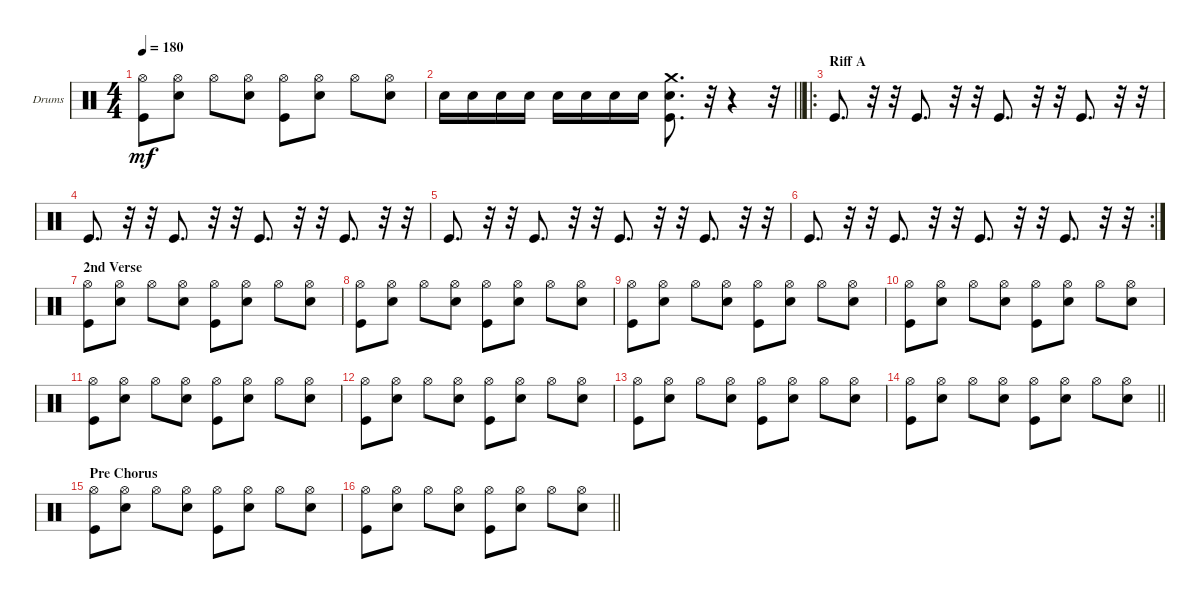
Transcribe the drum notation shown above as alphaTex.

\bracketExtendMode groupsimilarinstruments
\firstSystemTrackNameOrientation horizontal
\otherSystemsTrackNameOrientation horizontal
\track ("Drumkit" "Drums") {instrument percussion}
\staff {score}
\articulation defaults
\ts (4 4)
\tempo 180
\clef neutral
\ks c
("Kick (hit)" "Hi-Hat (open)").8{dy mf} ("Snare (hit) 2" "Hi-Hat (open)").8 "Hi-Hat (open)".8 ("Snare (hit) 2" "Hi-Hat (open)").8 ("Kick (hit)" "Hi-Hat (open)").8 ("Snare (hit) 2" "Hi-Hat (open)").8 "Hi-Hat (open)".8 ("Snare (hit) 2" "Hi-Hat (open)").8 |
\barLineRight lightlight "Snare (hit) 2".16 "Snare (hit) 2".16 "Snare (hit) 2".16 "Snare (hit) 2".16 "Snare (hit) 2".16 "Snare (hit) 2".16 "Snare (hit) 2".16 "Snare (hit) 2".16
("Kick (hit)" "Snare (hit) 2" "Crash medium (hit)").8{d} r.32 r.4 r.32 |
\ro
\section ("" "Riff A")
"Kick (hit)".8{d} r.32 r.32 "Kick (hit)".8{d} r.32 r.32 "Kick (hit)".8{d} r.32 r.32 "Kick (hit)".8{d} r.32 r.32 |
"Kick (hit)".8{d} r.32 r.32 "Kick (hit)".8{d} r.32 r.32 "Kick (hit)".8{d} r.32 r.32 "Kick (hit)".8{d} r.32 r.32 |
"Kick (hit)".8{d} r.32 r.32 "Kick (hit)".8{d} r.32 r.32 "Kick (hit)".8{d} r.32 r.32 "Kick (hit)".8{d} r.32 r.32 |
\rc 2 "Kick (hit)".8{d}
r.32 r.32 "Kick (hit)".8{d} r.32 r.32 "Kick (hit)".8{d} r.32 r.32 "Kick (hit)".8{d} r.32 r.32 |
\section ("" "2nd Verse")
("Kick (hit)" "Hi-Hat (open)").8 ("Snare (hit) 2" "Hi-Hat (open)").8 "Hi-Hat (open)".8 ("Snare (hit) 2" "Hi-Hat (open)").8 ("Kick (hit)" "Hi-Hat (open)").8 ("Snare (hit) 2" "Hi-Hat (open)").8 "Hi-Hat (open)".8 ("Snare (hit) 2" "Hi-Hat (open)").8 |
("Kick (hit)" "Hi-Hat (open)").8 ("Snare (hit) 2" "Hi-Hat (open)").8 "Hi-Hat (open)".8 ("Snare (hit) 2" "Hi-Hat (open)").8 ("Kick (hit)" "Hi-Hat (open)").8 ("Snare (hit) 2" "Hi-Hat (open)").8 "Hi-Hat (open)".8 ("Snare (hit) 2" "Hi-Hat (open)").8 |
("Kick (hit)" "Hi-Hat (open)").8 ("Snare (hit) 2" "Hi-Hat (open)").8 "Hi-Hat (open)".8 ("Snare (hit) 2" "Hi-Hat (open)").8 ("Kick (hit)" "Hi-Hat (open)").8 ("Snare (hit) 2" "Hi-Hat (open)").8 "Hi-Hat (open)".8 ("Snare (hit) 2" "Hi-Hat (open)").8 |
("Kick (hit)" "Hi-Hat (open)").8 ("Snare (hit) 2" "Hi-Hat (open)").8 "Hi-Hat (open)".8 ("Snare (hit) 2" "Hi-Hat (open)").8 ("Kick (hit)" "Hi-Hat (open)").8 ("Snare (hit) 2" "Hi-Hat (open)").8 "Hi-Hat (open)".8 ("Snare (hit) 2" "Hi-Hat (open)").8 |
("Kick (hit)" "Hi-Hat (open)").8 ("Snare (hit) 2" "Hi-Hat (open)").8 "Hi-Hat (open)".8 ("Snare (hit) 2" "Hi-Hat (open)").8 ("Kick (hit)" "Hi-Hat (open)").8 ("Snare (hit) 2" "Hi-Hat (open)").8 "Hi-Hat (open)".8 ("Snare (hit) 2" "Hi-Hat (open)").8 |
("Kick (hit)" "Hi-Hat (open)").8 ("Snare (hit) 2" "Hi-Hat (open)").8 "Hi-Hat (open)".8 ("Snare (hit) 2" "Hi-Hat (open)").8 ("Kick (hit)" "Hi-Hat (open)").8 ("Snare (hit) 2" "Hi-Hat (open)").8 "Hi-Hat (open)".8 ("Snare (hit) 2" "Hi-Hat (open)").8 |
("Kick (hit)" "Hi-Hat (open)").8 ("Snare (hit) 2" "Hi-Hat (open)").8 "Hi-Hat (open)".8 ("Snare (hit) 2" "Hi-Hat (open)").8 ("Kick (hit)" "Hi-Hat (open)").8 ("Snare (hit) 2" "Hi-Hat (open)").8 "Hi-Hat (open)".8 ("Snare (hit) 2" "Hi-Hat (open)").8 |
\barLineRight lightlight
("Kick (hit)" "Hi-Hat (open)").8 ("Snare (hit) 2" "Hi-Hat (open)").8 "Hi-Hat (open)".8 ("Snare (hit) 2" "Hi-Hat (open)").8 ("Kick (hit)" "Hi-Hat (open)").8 ("Snare (hit) 2" "Hi-Hat (open)").8 "Hi-Hat (open)".8 ("Snare (hit) 2" "Hi-Hat (open)").8 |
\section ("" "Pre Chorus")
("Kick (hit)" "Hi-Hat (open)").8 ("Snare (hit) 2" "Hi-Hat (open)").8 "Hi-Hat (open)".8 ("Snare (hit) 2" "Hi-Hat (open)").8 ("Kick (hit)" "Hi-Hat (open)").8 ("Snare (hit) 2" "Hi-Hat (open)").8 "Hi-Hat (open)".8 ("Snare (hit) 2" "Hi-Hat (open)").8 |
\barLineRight lightlight
("Kick (hit)" "Hi-Hat (open)").8 ("Snare (hit) 2" "Hi-Hat (open)").8 "Hi-Hat (open)".8 ("Snare (hit) 2" "Hi-Hat (open)").8 ("Kick (hit)" "Hi-Hat (open)").8 ("Snare (hit) 2" "Hi-Hat (open)").8 "Hi-Hat (open)".8 ("Snare (hit) 2" "Hi-Hat (open)").8
